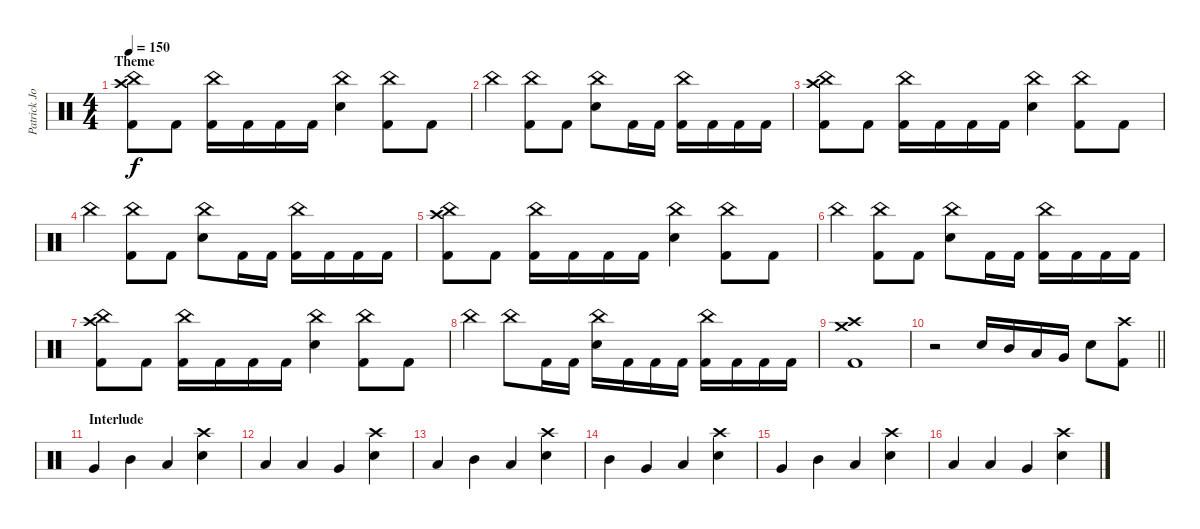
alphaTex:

\track ("Patrick Johansson" "Patrick Jo") {instrument percussion}
\staff {score}
\articulation defaults
\ts (4 4)
\section ("" "Theme")
\tempo 150
\clef neutral
\ks c
("Crash high (hit)" "China (hit)" "Kick (hit) 2").8{dy f} "Kick (hit) 2".8 ("China (hit)" "Kick (hit) 2").16 "Kick (hit) 2".16 "Kick (hit) 2".16 "Kick (hit) 2".16 ("China (hit)" "Snare (hit) 2").4 ("China (hit)" "Kick (hit) 2").8 "Kick (hit) 2".8 |
"China (hit)".4 ("China (hit)" "Kick (hit) 2").8 "Kick (hit) 2".8 ("China (hit)" "Snare (hit) 2").8 "Kick (hit) 2".16 "Kick (hit) 2".16 ("China (hit)" "Kick (hit) 2").16 "Kick (hit) 2".16 "Kick (hit) 2".16 "Kick (hit) 2".16 |
("Crash high (hit)" "China (hit)" "Kick (hit) 2").8 "Kick (hit) 2".8 ("China (hit)" "Kick (hit) 2").16 "Kick (hit) 2".16 "Kick (hit) 2".16 "Kick (hit) 2".16 ("China (hit)" "Snare (hit) 2").4 ("China (hit)" "Kick (hit) 2").8 "Kick (hit) 2".8 |
"China (hit)".4 ("China (hit)" "Kick (hit) 2").8 "Kick (hit) 2".8 ("China (hit)" "Snare (hit) 2").8 "Kick (hit) 2".16 "Kick (hit) 2".16 ("China (hit)" "Kick (hit) 2").16 "Kick (hit) 2".16 "Kick (hit) 2".16 "Kick (hit) 2".16 |
("Crash high (hit)" "China (hit)" "Kick (hit) 2").8 "Kick (hit) 2".8 ("China (hit)" "Kick (hit) 2").16 "Kick (hit) 2".16 "Kick (hit) 2".16 "Kick (hit) 2".16 ("China (hit)" "Snare (hit) 2").4 ("China (hit)" "Kick (hit) 2").8 "Kick (hit) 2".8 |
"China (hit)".4 ("China (hit)" "Kick (hit) 2").8 "Kick (hit) 2".8 ("China (hit)" "Snare (hit) 2").8 "Kick (hit) 2".16 "Kick (hit) 2".16 ("China (hit)" "Kick (hit) 2").16 "Kick (hit) 2".16 "Kick (hit) 2".16 "Kick (hit) 2".16 |
("Crash high (hit)" "China (hit)" "Kick (hit) 2").8 "Kick (hit) 2".8 ("China (hit)" "Kick (hit) 2").16 "Kick (hit) 2".16 "Kick (hit) 2".16 "Kick (hit) 2".16 ("China (hit)" "Snare (hit) 2").4 ("China (hit)" "Kick (hit) 2").8 "Kick (hit) 2".8 |
"China (hit)".4 "China (hit)".8 "Kick (hit) 2".16 "Kick (hit) 2".16 ("China (hit)" "Snare (hit) 2").16 "Kick (hit) 2".16 "Kick (hit) 2".16 "Kick (hit) 2".16 ("China (hit)" "Kick (hit) 2").16 "Kick (hit) 2".16 "Kick (hit) 2".16 "Kick (hit) 2".16 |
("Crash medium (hit)" "Crash high (hit)" "Kick (hit) 2").1 |
\barLineRight lightlight
r.2 "Snare (hit) 2".16 "Mid Tom (hit)".16 "Low Tom (hit)".16 "Very Low Tom (hit)".16 "Snare (hit) 2".8 ("Crash high (hit)" "Kick (hit) 2").8 |
\section ("" "Interlude")
"Very Low Tom (hit)".4 "Mid Tom (hit)".4 "Low Tom (hit)".4 ("Crash high (hit)" "Snare (hit) 2").4 |
"Low Floor Tom (hit)".4 "Low Tom (hit)".4 "Very Low Tom (hit)".4 ("Crash high (hit)" "Snare (hit) 2").4 |
"Low Tom (hit)".4 "Mid Tom (hit)".4 "Low Floor Tom (hit)".4 ("Crash high (hit)" "Snare (hit) 2").4 |
"Mid Tom (hit)".4 "Very Low Tom (hit)".4 "Low Tom (hit)".4 ("Crash high (hit)" "Snare (hit) 2").4 |
"Very Low Tom (hit)".4 "Mid Tom (hit)".4 "Low Tom (hit)".4 ("Crash high (hit)" "Snare (hit) 2").4 |
"Low Floor Tom (hit)".4 "Low Tom (hit)".4 "Very Low Tom (hit)".4 ("Crash high (hit)" "Snare (hit) 2").4
